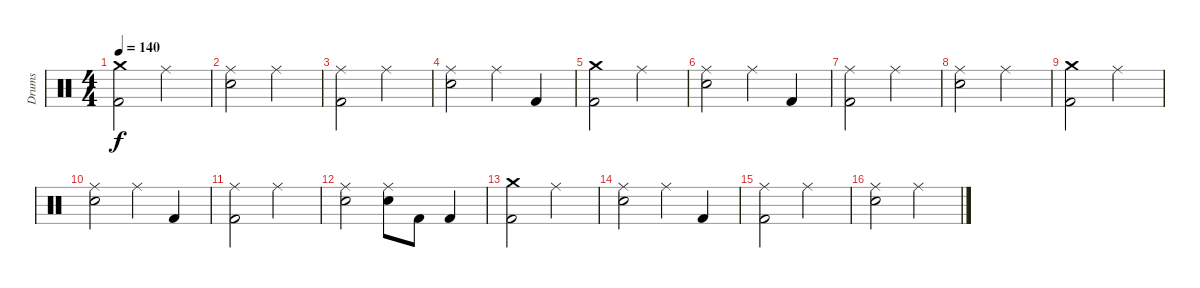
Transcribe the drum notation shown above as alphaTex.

\track ("Drums" "Drums") {instrument percussion}
\staff {score}
\articulation defaults
\ts (4 4)
\tempo 140
\clef neutral
\ks c
("Crash medium (hit)" "Kick (hit) 2").2{dy f} "Ride (middle)".2 |
("Ride (middle)" "Electric Snare (hit)").2 "Ride (middle)".2 |
("Ride (middle)" "Kick (hit) 2").2 "Ride (middle)".2 |
("Ride (middle)" "Electric Snare (hit)").2 "Ride (middle)".4 "Kick (hit) 2".4 |
("Crash medium (hit)" "Kick (hit) 2").2 "Ride (middle)".2 |
("Ride (middle)" "Electric Snare (hit)").2 "Ride (middle)".4 "Kick (hit) 2".4 |
("Ride (middle)" "Kick (hit) 2").2 "Ride (middle)".2 |
("Ride (middle)" "Electric Snare (hit)").2 "Ride (middle)".2 |
("Crash medium (hit)" "Kick (hit) 2").2 "Ride (middle)".2 |
("Ride (middle)" "Electric Snare (hit)").2 "Ride (middle)".4 "Kick (hit) 2".4 |
("Ride (middle)" "Kick (hit) 2").2 "Ride (middle)".2 |
("Ride (middle)" "Electric Snare (hit)").2 ("Ride (middle)" "Electric Snare (hit)").8 "Kick (hit) 2".8 "Kick (hit) 2".4 |
("Crash medium (hit)" "Kick (hit) 2").2 "Ride (middle)".2 |
("Ride (middle)" "Electric Snare (hit)").2 "Ride (middle)".4 "Kick (hit) 2".4 |
("Ride (middle)" "Kick (hit) 2").2 "Ride (middle)".2 |
("Ride (middle)" "Electric Snare (hit)").2 "Ride (middle)".2
